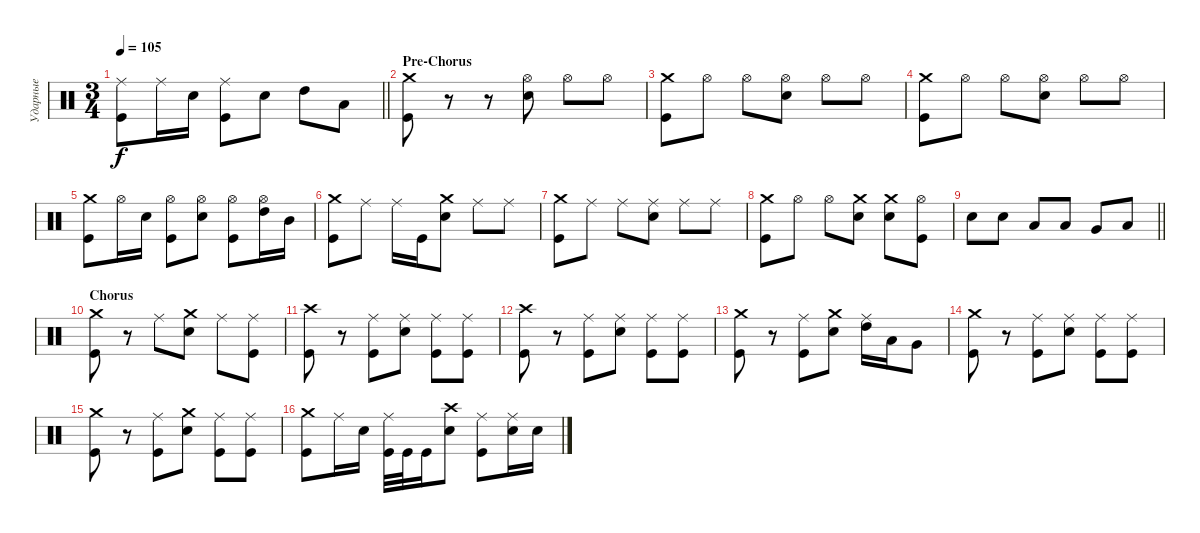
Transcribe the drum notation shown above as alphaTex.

\track ("Ударные" "Ударные") {instrument percussion}
\staff {score}
\articulation defaults
\ts (3 4)
\tempo 105
\clef neutral
\barLineRight lightlight
\ks c
("Ride (middle)" "Kick (hit)").8{dy f} "Ride (middle)".16 "Electric Snare (hit)".16 ("Ride (middle)" "Kick (hit)").8 "Electric Snare (hit)".8 "High Tom (hit)".8 "Low Tom (hit)".8 |
\section ("" "Pre-Chorus")
("Crash medium (hit)" "Kick (hit)").8 r.8 r.8 ("Hi-Hat (open)" "Electric Snare (hit)").8 "Hi-Hat (open)".8 "Hi-Hat (open)".8 |
("Crash medium (hit)" "Kick (hit)").8 "Hi-Hat (open)".8 "Hi-Hat (open)".8 ("Hi-Hat (open)" "Electric Snare (hit)").8 "Hi-Hat (open)".8 "Hi-Hat (open)".8 |
("Crash medium (hit)" "Kick (hit)").8 "Hi-Hat (open)".8 "Hi-Hat (open)".8 ("Hi-Hat (open)" "Electric Snare (hit)").8 "Hi-Hat (open)".8 "Hi-Hat (open)".8 |
("Crash medium (hit)" "Kick (hit)").8 "Hi-Hat (open)".16 "Electric Snare (hit)".16 ("Hi-Hat (open)" "Kick (hit)").8 ("Hi-Hat (open)" "Electric Snare (hit)").8 ("Hi-Hat (open)" "Kick (hit)").8 ("Hi-Hat (open)" "High Tom (hit)").16 "Mid Tom (hit)".16 |
("Crash medium (hit)" "Kick (hit)").8 "Ride (middle)".8 "Ride (middle)".16 "Kick (hit)".16 ("Crash medium (hit)" "Electric Snare (hit)").8 "Ride (middle)".8 "Ride (middle)".8 |
("Crash medium (hit)" "Kick (hit)").8 "Ride (middle)".8 "Ride (middle)".8 ("Ride (middle)" "Electric Snare (hit)").8 "Ride (middle)".8 "Ride (middle)".8 |
("Crash medium (hit)" "Kick (hit)").8 "Hi-Hat (open)".8 "Hi-Hat (open)".8 ("Crash medium (hit)" "Electric Snare (hit)").8 ("Crash medium (hit)" "Electric Snare (hit)").8 ("Hi-Hat (open)" "Kick (hit)").8 |
\barLineRight lightlight "Electric Snare (hit)".8 "Electric Snare (hit)".8 "Low Tom (hit)".8 "Low Tom (hit)".8 "Very Low Tom (hit)".8 "Low Floor Tom (hit)".8
|
\section ("" "Chorus")
("Crash medium (hit)" "Kick (hit)").8 r.8 "Ride (middle)".8 ("Crash medium (hit)" "Electric Snare (hit)").8 "Ride (middle)".8 ("Ride (middle)" "Kick (hit)").8 |
("Crash high (hit)" "Kick (hit)").8 r.8 ("Ride (middle)" "Kick (hit)").8 ("Ride (middle)" "Electric Snare (hit)").8 ("Ride (middle)" "Kick (hit)").8 ("Ride (middle)" "Kick (hit)").8 |
("Crash high (hit)" "Kick (hit)").8 r.8 ("Ride (middle)" "Kick (hit)").8 ("Ride (middle)" "Electric Snare (hit)").8 ("Ride (middle)" "Kick (hit)").8 ("Ride (middle)" "Kick (hit)").8 |
("Crash medium (hit)" "Kick (hit)").8 r.8 ("Ride (middle)" "Kick (hit)").8 ("Crash medium (hit)" "Electric Snare (hit)").8 ("Ride (middle)" "High Tom (hit)").16 "Low Tom (hit)".16 "Very Low Tom (hit)".8 |
("Crash medium (hit)" "Kick (hit)").8 r.8 ("Ride (middle)" "Kick (hit)").8 ("Ride (middle)" "Electric Snare (hit)").8 ("Ride (middle)" "Kick (hit)").8 ("Ride (middle)" "Kick (hit)").8 |
("Crash medium (hit)" "Kick (hit)").8 r.8 ("Ride (middle)" "Kick (hit)").8 ("Crash medium (hit)" "Electric Snare (hit)").8 ("Ride (middle)" "Kick (hit)").8 ("Ride (middle)" "Kick (hit)").8 |
("Crash medium (hit)" "Kick (hit)").8 "Ride (middle)".16 "Electric Snare (hit)".16 ("Ride (middle)" "Kick (hit)").32 "Kick (hit)".32 "Kick (hit)".16 ("Crash high (hit)" "Electric Snare (hit)").8 ("Ride (middle)" "Kick (hit)").8 ("Ride (middle)" "Electric Snare (hit)").16 "Electric Snare (hit)".16
